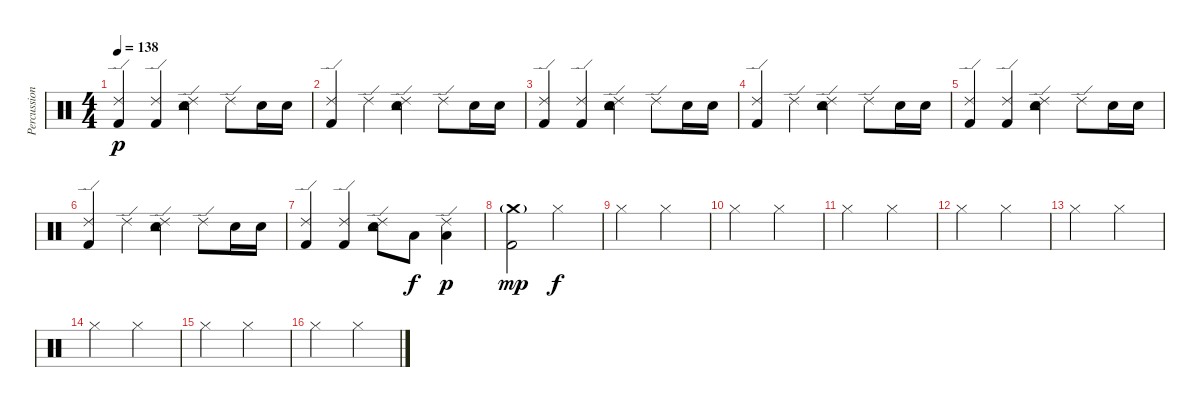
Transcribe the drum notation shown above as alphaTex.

\track ("Percussions" "Percussion") {instrument percussion}
\staff {score}
\articulation defaults
\ts (4 4)
\tempo 138
\clef neutral
\ks c
("Kick (hit) 2" "Ride (edge) 2").4{dy p} ("Kick (hit) 2" "Ride (edge) 2").4 ("Snare (hit) 2" "Tambourine (hit)" "Ride (edge) 2").4 "Ride (edge) 2".8 "Snare (hit) 2".16 "Snare (hit) 2".16 |
("Kick (hit) 2" "Ride (edge) 2").4 "Ride (edge) 2".4 ("Snare (hit) 2" "Tambourine (hit)" "Ride (edge) 2").4 "Ride (edge) 2".8 "Snare (hit) 2".16 "Snare (hit) 2".16 |
("Kick (hit) 2" "Ride (edge) 2").4 ("Kick (hit) 2" "Ride (edge) 2").4 ("Snare (hit) 2" "Tambourine (hit)" "Ride (edge) 2").4 "Ride (edge) 2".8 "Snare (hit) 2".16 "Snare (hit) 2".16 |
("Kick (hit) 2" "Ride (edge) 2").4 "Ride (edge) 2".4 ("Snare (hit) 2" "Tambourine (hit)" "Ride (edge) 2").4 "Ride (edge) 2".8 "Snare (hit) 2".16 "Snare (hit) 2".16 |
("Kick (hit) 2" "Ride (edge) 2").4 ("Kick (hit) 2" "Ride (edge) 2").4 ("Snare (hit) 2" "Tambourine (hit)" "Ride (edge) 2").4 "Ride (edge) 2".8 "Snare (hit) 2".16 "Snare (hit) 2".16 |
("Kick (hit) 2" "Ride (edge) 2").4 "Ride (edge) 2".4 ("Snare (hit) 2" "Tambourine (hit)" "Ride (edge) 2").4 "Ride (edge) 2".8 "Snare (hit) 2".16 "Snare (hit) 2".16 |
("Kick (hit) 2" "Ride (edge) 2").4 ("Kick (hit) 2" "Ride (edge) 2").4 ("Snare (hit) 2" "Tambourine (hit)" "Ride (edge) 2").8 "Low Floor Tom (hit)".8{dy f} ("Low Floor Tom (hit)" "Ride (edge) 2").4{dy p} |
("Kick (hit) 2" "Crash medium (hit)"{g}).2{dy mp} "Hi-Hat (closed)".2{dy f} |
"Hi-Hat (closed)".2 "Hi-Hat (closed)".2 |
"Hi-Hat (closed)".2 "Hi-Hat (closed)".2 |
"Hi-Hat (closed)".2 "Hi-Hat (closed)".2 |
"Hi-Hat (closed)".2 "Hi-Hat (closed)".2 |
"Hi-Hat (closed)".2 "Hi-Hat (closed)".2 |
"Hi-Hat (closed)".2 "Hi-Hat (closed)".2 |
"Hi-Hat (closed)".2 "Hi-Hat (closed)".2 |
"Hi-Hat (closed)".2 "Hi-Hat (closed)".2
